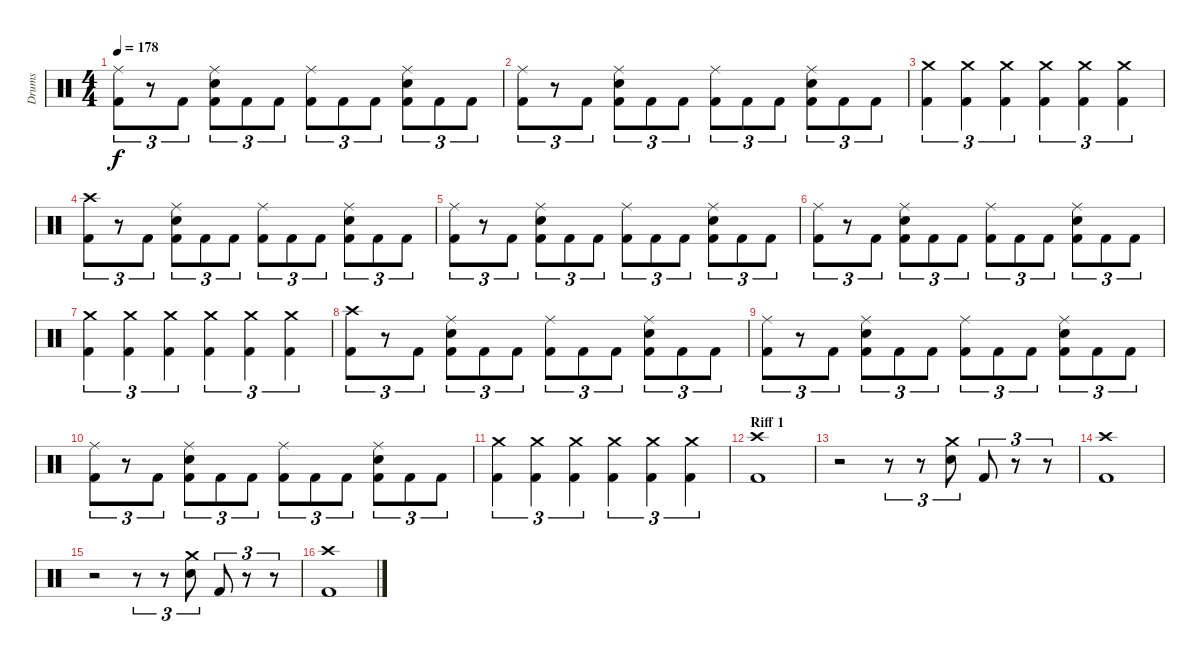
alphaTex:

\track ("Drums" "Drums") {instrument percussion}
\staff {score}
\articulation defaults
\ts (4 4)
\tempo 178
\clef neutral
\ks c
("Ride (middle)" "Kick (hit) 2").8{tu (3 2) dy f} r.8{tu (3 2)} "Kick (hit) 2".8{tu (3 2)} ("Ride (middle)" "Electric Snare (hit)" "Kick (hit) 2").8{tu (3 2)} "Kick (hit) 2".8{tu (3 2)} "Kick (hit) 2".8{tu (3 2)} ("Ride (middle)" "Kick (hit) 2").8{tu (3 2)} "Kick (hit) 2".8{tu (3 2)} "Kick (hit) 2".8{tu (3 2)} ("Ride (middle)" "Electric Snare (hit)" "Kick (hit) 2").8{tu (3 2)} "Kick (hit) 2".8{tu (3 2)} "Kick (hit) 2".8{tu (3 2)} |
("Ride (middle)" "Kick (hit) 2").8{tu (3 2)} r.8{tu (3 2)} "Kick (hit) 2".8{tu (3 2)} ("Ride (middle)" "Electric Snare (hit)" "Kick (hit) 2").8{tu (3 2)} "Kick (hit) 2".8{tu (3 2)} "Kick (hit) 2".8{tu (3 2)} ("Ride (middle)" "Kick (hit) 2").8{tu (3 2)} "Kick (hit) 2".8{tu (3 2)} "Kick (hit) 2".8{tu (3 2)} ("Ride (middle)" "Electric Snare (hit)" "Kick (hit) 2").8{tu (3 2)} "Kick (hit) 2".8{tu (3 2)} "Kick (hit) 2".8{tu (3 2)} |
("Crash medium (hit)" "Kick (hit) 2").4{tu (3 2)} ("Crash medium (hit)" "Kick (hit) 2").4{tu (3 2)} ("Crash medium (hit)" "Kick (hit) 2").4{tu (3 2)} ("Crash medium (hit)" "Kick (hit) 2").4{tu (3 2)} ("Crash medium (hit)" "Kick (hit) 2").4{tu (3 2)} ("Crash medium (hit)" "Kick (hit) 2").4{tu (3 2)} |
("Crash high (hit)" "Kick (hit) 2").8{tu (3 2)} r.8{tu (3 2)} "Kick (hit) 2".8{tu (3 2)} ("Ride (middle)" "Electric Snare (hit)" "Kick (hit) 2").8{tu (3 2)} "Kick (hit) 2".8{tu (3 2)} "Kick (hit) 2".8{tu (3 2)} ("Ride (middle)" "Kick (hit) 2").8{tu (3 2)} "Kick (hit) 2".8{tu (3 2)} "Kick (hit) 2".8{tu (3 2)} ("Ride (middle)" "Electric Snare (hit)" "Kick (hit) 2").8{tu (3 2)} "Kick (hit) 2".8{tu (3 2)} "Kick (hit) 2".8{tu (3 2)} |
("Ride (middle)" "Kick (hit) 2").8{tu (3 2)} r.8{tu (3 2)} "Kick (hit) 2".8{tu (3 2)} ("Ride (middle)" "Electric Snare (hit)" "Kick (hit) 2").8{tu (3 2)} "Kick (hit) 2".8{tu (3 2)} "Kick (hit) 2".8{tu (3 2)} ("Ride (middle)" "Kick (hit) 2").8{tu (3 2)} "Kick (hit) 2".8{tu (3 2)} "Kick (hit) 2".8{tu (3 2)} ("Ride (middle)" "Electric Snare (hit)" "Kick (hit) 2").8{tu (3 2)} "Kick (hit) 2".8{tu (3 2)} "Kick (hit) 2".8{tu (3 2)} |
("Ride (middle)" "Kick (hit) 2").8{tu (3 2)} r.8{tu (3 2)} "Kick (hit) 2".8{tu (3 2)} ("Ride (middle)" "Electric Snare (hit)" "Kick (hit) 2").8{tu (3 2)} "Kick (hit) 2".8{tu (3 2)} "Kick (hit) 2".8{tu (3 2)} ("Ride (middle)" "Kick (hit) 2").8{tu (3 2)} "Kick (hit) 2".8{tu (3 2)} "Kick (hit) 2".8{tu (3 2)} ("Ride (middle)" "Electric Snare (hit)" "Kick (hit) 2").8{tu (3 2)} "Kick (hit) 2".8{tu (3 2)} "Kick (hit) 2".8{tu (3 2)} |
("Crash medium (hit)" "Kick (hit) 2").4{tu (3 2)} ("Crash medium (hit)" "Kick (hit) 2").4{tu (3 2)} ("Crash medium (hit)" "Kick (hit) 2").4{tu (3 2)} ("Crash medium (hit)" "Kick (hit) 2").4{tu (3 2)} ("Crash medium (hit)" "Kick (hit) 2").4{tu (3 2)} ("Crash medium (hit)" "Kick (hit) 2").4{tu (3 2)} |
("Crash high (hit)" "Kick (hit) 2").8{tu (3 2)} r.8{tu (3 2)} "Kick (hit) 2".8{tu (3 2)} ("Ride (middle)" "Electric Snare (hit)" "Kick (hit) 2").8{tu (3 2)} "Kick (hit) 2".8{tu (3 2)} "Kick (hit) 2".8{tu (3 2)} ("Ride (middle)" "Kick (hit) 2").8{tu (3 2)} "Kick (hit) 2".8{tu (3 2)} "Kick (hit) 2".8{tu (3 2)} ("Ride (middle)" "Electric Snare (hit)" "Kick (hit) 2").8{tu (3 2)} "Kick (hit) 2".8{tu (3 2)} "Kick (hit) 2".8{tu (3 2)} |
("Ride (middle)" "Kick (hit) 2").8{tu (3 2)} r.8{tu (3 2)} "Kick (hit) 2".8{tu (3 2)} ("Ride (middle)" "Electric Snare (hit)" "Kick (hit) 2").8{tu (3 2)} "Kick (hit) 2".8{tu (3 2)} "Kick (hit) 2".8{tu (3 2)} ("Ride (middle)" "Kick (hit) 2").8{tu (3 2)} "Kick (hit) 2".8{tu (3 2)} "Kick (hit) 2".8{tu (3 2)} ("Ride (middle)" "Electric Snare (hit)" "Kick (hit) 2").8{tu (3 2)} "Kick (hit) 2".8{tu (3 2)} "Kick (hit) 2".8{tu (3 2)} |
("Ride (middle)" "Kick (hit) 2").8{tu (3 2)} r.8{tu (3 2)} "Kick (hit) 2".8{tu (3 2)} ("Ride (middle)" "Electric Snare (hit)" "Kick (hit) 2").8{tu (3 2)} "Kick (hit) 2".8{tu (3 2)} "Kick (hit) 2".8{tu (3 2)} ("Ride (middle)" "Kick (hit) 2").8{tu (3 2)} "Kick (hit) 2".8{tu (3 2)} "Kick (hit) 2".8{tu (3 2)} ("Ride (middle)" "Electric Snare (hit)" "Kick (hit) 2").8{tu (3 2)} "Kick (hit) 2".8{tu (3 2)} "Kick (hit) 2".8{tu (3 2)} |
("Crash medium (hit)" "Kick (hit) 2").4{tu (3 2)} ("Crash medium (hit)" "Kick (hit) 2").4{tu (3 2)} ("Crash medium (hit)" "Kick (hit) 2").4{tu (3 2)} ("Crash medium (hit)" "Kick (hit) 2").4{tu (3 2)} ("Crash medium (hit)" "Kick (hit) 2").4{tu (3 2)} ("Crash medium (hit)" "Kick (hit) 2").4{tu (3 2)} |
\section ("" "Riff 1")
("Crash high (hit)" "Kick (hit) 2").1 |
r.2 r.8{tu (3 2)} r.8{tu (3 2)} ("Crash medium (hit)" "Electric Snare (hit)").8{tu (3 2)} "Kick (hit) 2".8{tu (3 2)} r.8{tu (3 2)} r.8{tu (3 2)} |
("Crash high (hit)" "Kick (hit) 2").1 |
r.2 r.8{tu (3 2)} r.8{tu (3 2)} ("Crash medium (hit)" "Electric Snare (hit)").8{tu (3 2)} "Kick (hit) 2".8{tu (3 2)} r.8{tu (3 2)} r.8{tu (3 2)} |
("Crash high (hit)" "Kick (hit) 2").1
